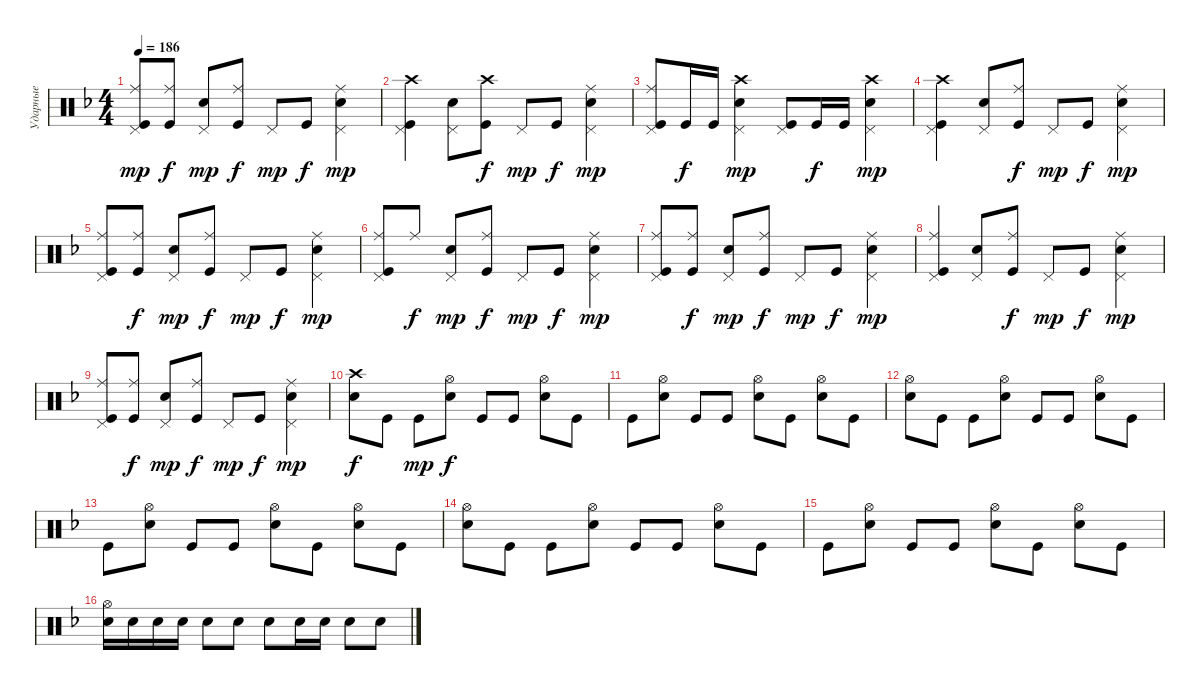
\track ("Ударные" "Ударные") {instrument percussion}
\staff {score}
\articulation defaults
\ts (4 4)
\tempo 186
\clef neutral
\ks dminor
("Kick (hit)" "Ride (middle)" "Pedal Hi-Hat (hit)").8{dy mp} ("Ride (middle)" "Kick (hit)").8{dy f} ("Snare (hit) 2" "Pedal Hi-Hat (hit)").8{dy mp} ("Kick (hit)" "Ride (middle)").8{dy f} "Pedal Hi-Hat (hit)".8{dy mp} "Kick (hit)".8{dy f} ("Snare (hit) 2" "Ride (middle)" "Pedal Hi-Hat (hit)").4{dy mp} |
("Kick (hit)" "Crash high (hit)" "Pedal Hi-Hat (hit)").4 ("Snare (hit) 2" "Pedal Hi-Hat (hit)").8 ("Kick (hit)" "Crash high (hit)").8{dy f} "Pedal Hi-Hat (hit)".8{dy mp} "Kick (hit)".8{dy f} ("Snare (hit) 2" "Ride (middle)" "Pedal Hi-Hat (hit)").4{dy mp} |
("Kick (hit)" "Ride (middle)" "Pedal Hi-Hat (hit)").8 "Kick (hit)".16{dy f} "Kick (hit)".16 ("Snare (hit) 2" "Crash high (hit)" "Pedal Hi-Hat (hit)").4{dy mp} ("Kick (hit)" "Pedal Hi-Hat (hit)").8 "Kick (hit)".16{dy f} "Kick (hit)".16 ("Snare (hit) 2" "Crash high (hit)" "Pedal Hi-Hat (hit)").4{dy mp} |
("Kick (hit)" "Crash high (hit)" "Pedal Hi-Hat (hit)").4 ("Snare (hit) 2" "Pedal Hi-Hat (hit)").8 ("Kick (hit)" "Ride (middle)").8{dy f} "Pedal Hi-Hat (hit)".8{dy mp} "Kick (hit)".8{dy f} ("Snare (hit) 2" "Ride (middle)" "Pedal Hi-Hat (hit)").4{dy mp} |
("Kick (hit)" "Ride (middle)" "Pedal Hi-Hat (hit)").8 ("Ride (middle)" "Kick (hit)").8{dy f} ("Snare (hit) 2" "Pedal Hi-Hat (hit)").8{dy mp} ("Kick (hit)" "Ride (middle)").8{dy f} "Pedal Hi-Hat (hit)".8{dy mp} "Kick (hit)".8{dy f} ("Snare (hit) 2" "Ride (middle)" "Pedal Hi-Hat (hit)").4{dy mp} |
("Kick (hit)" "Ride (middle)" "Pedal Hi-Hat (hit)").8 "Ride (middle)".8{dy f} ("Snare (hit) 2" "Pedal Hi-Hat (hit)").8{dy mp} ("Kick (hit)" "Ride (middle)").8{dy f} "Pedal Hi-Hat (hit)".8{dy mp} "Kick (hit)".8{dy f} ("Snare (hit) 2" "Ride (middle)" "Pedal Hi-Hat (hit)").4{dy mp} |
("Kick (hit)" "Ride (middle)" "Pedal Hi-Hat (hit)").8 ("Ride (middle)" "Kick (hit)").8{dy f} ("Snare (hit) 2" "Pedal Hi-Hat (hit)").8{dy mp} ("Kick (hit)" "Ride (middle)").8{dy f} "Pedal Hi-Hat (hit)".8{dy mp} "Kick (hit)".8{dy f} ("Snare (hit) 2" "Ride (middle)" "Pedal Hi-Hat (hit)").4{dy mp} |
("Kick (hit)" "Ride (middle)" "Pedal Hi-Hat (hit)").4 ("Snare (hit) 2" "Pedal Hi-Hat (hit)").8 ("Kick (hit)" "Ride (middle)").8{dy f} "Pedal Hi-Hat (hit)".8{dy mp} "Kick (hit)".8{dy f} ("Snare (hit) 2" "Ride (middle)" "Pedal Hi-Hat (hit)").4{dy mp} |
("Kick (hit)" "Ride (middle)" "Pedal Hi-Hat (hit)").8 ("Ride (middle)" "Kick (hit)").8{dy f} ("Snare (hit) 2" "Pedal Hi-Hat (hit)").8{dy mp} ("Kick (hit)" "Ride (middle)").8{dy f} "Pedal Hi-Hat (hit)".8{dy mp} "Kick (hit)".8{dy f} ("Snare (hit) 2" "Ride (middle)" "Pedal Hi-Hat (hit)").4{dy mp} |
("Snare (hit) 2" "Crash high (hit)").8{dy f} "Kick (hit)".8 "Kick (hit)".8{dy mp} ("Snare (hit) 2" "Hi-Hat (open)").8{dy f} "Kick (hit)".8 "Kick (hit)".8 ("Snare (hit) 2" "Hi-Hat (open)").8 "Kick (hit)".8 |
"Kick (hit)".8 ("Snare (hit) 2" "Hi-Hat (open)").8 "Kick (hit)".8 "Kick (hit)".8 ("Snare (hit) 2" "Hi-Hat (open)").8 "Kick (hit)".8 ("Snare (hit) 2" "Hi-Hat (open)").8 "Kick (hit)".8 |
("Snare (hit) 2" "Hi-Hat (open)").8 "Kick (hit)".8 "Kick (hit)".8 ("Snare (hit) 2" "Hi-Hat (open)").8 "Kick (hit)".8 "Kick (hit)".8 ("Snare (hit) 2" "Hi-Hat (open)").8 "Kick (hit)".8 |
"Kick (hit)".8 ("Snare (hit) 2" "Hi-Hat (open)").8 "Kick (hit)".8 "Kick (hit)".8 ("Snare (hit) 2" "Hi-Hat (open)").8 "Kick (hit)".8 ("Snare (hit) 2" "Hi-Hat (open)").8 "Kick (hit)".8 |
("Snare (hit) 2" "Hi-Hat (open)").8 "Kick (hit)".8 "Kick (hit)".8 ("Snare (hit) 2" "Hi-Hat (open)").8 "Kick (hit)".8 "Kick (hit)".8 ("Snare (hit) 2" "Hi-Hat (open)").8 "Kick (hit)".8 |
"Kick (hit)".8 ("Snare (hit) 2" "Hi-Hat (open)").8 "Kick (hit)".8 "Kick (hit)".8 ("Snare (hit) 2" "Hi-Hat (open)").8 "Kick (hit)".8 ("Snare (hit) 2" "Hi-Hat (open)").8 "Kick (hit)".8 |
("Snare (hit) 2" "Hi-Hat (open)").16 "Snare (hit) 2".16 "Snare (hit) 2".16 "Snare (hit) 2".16 "Snare (hit) 2".8 "Snare (hit) 2".8 "Snare (hit) 2".8 "Snare (hit) 2".16 "Snare (hit) 2".16 "Snare (hit) 2".8 "Snare (hit) 2".8
